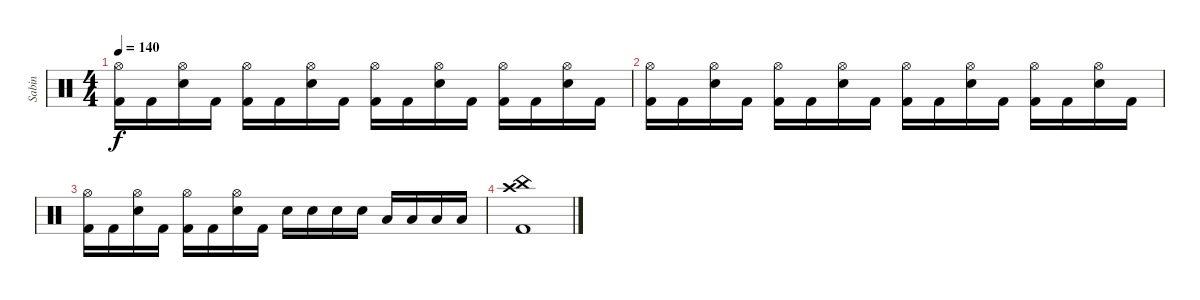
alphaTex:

\track ("Sabin" "Sabin") {instrument percussion}
\staff {score}
\articulation defaults
\ts (4 4)
\tempo 140
\clef neutral
\ks c
("Hi-Hat (open)" "Kick (hit) 2").16{dy f} "Kick (hit) 2".16 ("Hi-Hat (open)" "Snare (hit) 2").16 "Kick (hit) 2".16 ("Hi-Hat (open)" "Kick (hit) 2").16 "Kick (hit) 2".16 ("Hi-Hat (open)" "Snare (hit) 2").16 "Kick (hit) 2".16 ("Hi-Hat (open)" "Kick (hit) 2").16 "Kick (hit) 2".16 ("Hi-Hat (open)" "Snare (hit) 2").16 "Kick (hit) 2".16 ("Hi-Hat (open)" "Kick (hit) 2").16 "Kick (hit) 2".16 ("Hi-Hat (open)" "Snare (hit) 2").16 "Kick (hit) 2".16 |
("Hi-Hat (open)" "Kick (hit) 2").16 "Kick (hit) 2".16 ("Hi-Hat (open)" "Snare (hit) 2").16 "Kick (hit) 2".16 ("Hi-Hat (open)" "Kick (hit) 2").16 "Kick (hit) 2".16 ("Hi-Hat (open)" "Snare (hit) 2").16 "Kick (hit) 2".16 ("Hi-Hat (open)" "Kick (hit) 2").16 "Kick (hit) 2".16 ("Hi-Hat (open)" "Snare (hit) 2").16 "Kick (hit) 2".16 ("Hi-Hat (open)" "Kick (hit) 2").16 "Kick (hit) 2".16 ("Hi-Hat (open)" "Snare (hit) 2").16 "Kick (hit) 2".16 |
("Hi-Hat (open)" "Kick (hit) 2").16 "Kick (hit) 2".16 ("Hi-Hat (open)" "Snare (hit) 2").16 "Kick (hit) 2".16 ("Hi-Hat (open)" "Kick (hit) 2").16 "Kick (hit) 2".16 ("Hi-Hat (open)" "Snare (hit) 2").16 "Kick (hit) 2".16 "Snare (hit) 2".16 "Snare (hit) 2".16 "Snare (hit) 2".16 "Snare (hit) 2".16 "Low Floor Tom (hit)".16 "Low Floor Tom (hit)".16 "Low Floor Tom (hit)".16 "Low Floor Tom (hit)".16 |
("China (hit)" "Crash high (hit)" "Kick (hit) 2").1
